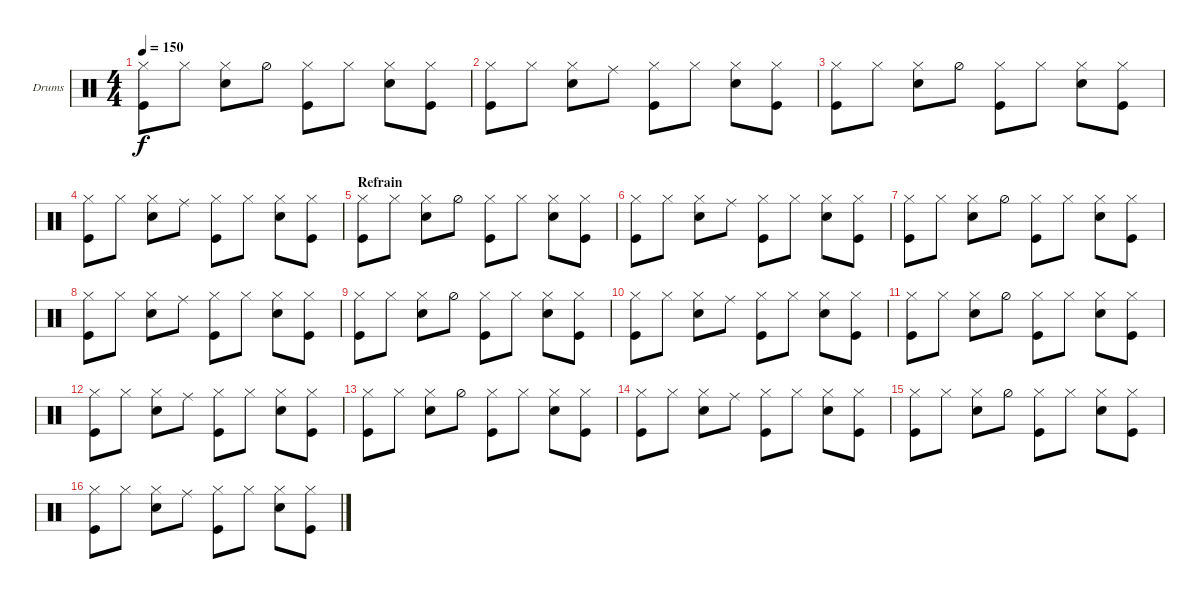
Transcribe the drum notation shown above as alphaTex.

\bracketExtendMode groupsimilarinstruments
\firstSystemTrackNameOrientation horizontal
\otherSystemsTrackNameOrientation horizontal
\track ("Drumkit" "Drums") {instrument percussion}
\staff {score}
\articulation defaults
\ts (4 4)
\tempo 150
\clef neutral
\ks c
("Hi-Hat (closed)" "Kick (hit)").8{dy f} "Hi-Hat (closed)".8 ("Hi-Hat (closed)" "Snare (hit) 2").8 "Hi-Hat (half)".8 ("Hi-Hat (closed)" "Kick (hit)").8 "Hi-Hat (closed)".8 ("Hi-Hat (closed)" "Snare (hit) 2").8 ("Hi-Hat (closed)" "Kick (hit)").8 |
("Hi-Hat (closed)" "Kick (hit)").8 "Hi-Hat (closed)".8 ("Hi-Hat (closed)" "Snare (hit) 2").8 "Ride (middle)".8 ("Hi-Hat (closed)" "Kick (hit)").8 "Hi-Hat (closed)".8 ("Hi-Hat (closed)" "Snare (hit) 2").8 ("Hi-Hat (closed)" "Kick (hit)").8 |
("Hi-Hat (closed)" "Kick (hit)").8 "Hi-Hat (closed)".8 ("Hi-Hat (closed)" "Snare (hit) 2").8 "Hi-Hat (half)".8 ("Hi-Hat (closed)" "Kick (hit)").8 "Hi-Hat (closed)".8 ("Hi-Hat (closed)" "Snare (hit) 2").8 ("Hi-Hat (closed)" "Kick (hit)").8 |
("Hi-Hat (closed)" "Kick (hit)").8 "Hi-Hat (closed)".8 ("Hi-Hat (closed)" "Snare (hit) 2").8 "Ride (middle)".8 ("Hi-Hat (closed)" "Kick (hit)").8 "Hi-Hat (closed)".8 ("Hi-Hat (closed)" "Snare (hit) 2").8 ("Hi-Hat (closed)" "Kick (hit)").8 |
\section ("" "Refrain")
("Hi-Hat (closed)" "Kick (hit)").8 "Hi-Hat (closed)".8 ("Hi-Hat (closed)" "Snare (hit) 2").8 "Hi-Hat (half)".8 ("Hi-Hat (closed)" "Kick (hit)").8 "Hi-Hat (closed)".8 ("Hi-Hat (closed)" "Snare (hit) 2").8 ("Hi-Hat (closed)" "Kick (hit)").8 |
("Hi-Hat (closed)" "Kick (hit)").8 "Hi-Hat (closed)".8 ("Hi-Hat (closed)" "Snare (hit) 2").8 "Ride (middle)".8 ("Hi-Hat (closed)" "Kick (hit)").8 "Hi-Hat (closed)".8 ("Hi-Hat (closed)" "Snare (hit) 2").8 ("Hi-Hat (closed)" "Kick (hit)").8 |
("Hi-Hat (closed)" "Kick (hit)").8 "Hi-Hat (closed)".8 ("Hi-Hat (closed)" "Snare (hit) 2").8 "Hi-Hat (half)".8 ("Hi-Hat (closed)" "Kick (hit)").8 "Hi-Hat (closed)".8 ("Hi-Hat (closed)" "Snare (hit) 2").8 ("Hi-Hat (closed)" "Kick (hit)").8 |
("Hi-Hat (closed)" "Kick (hit)").8 "Hi-Hat (closed)".8 ("Hi-Hat (closed)" "Snare (hit) 2").8 "Ride (middle)".8 ("Hi-Hat (closed)" "Kick (hit)").8 "Hi-Hat (closed)".8 ("Hi-Hat (closed)" "Snare (hit) 2").8 ("Hi-Hat (closed)" "Kick (hit)").8 |
("Hi-Hat (closed)" "Kick (hit)").8 "Hi-Hat (closed)".8 ("Hi-Hat (closed)" "Snare (hit) 2").8 "Hi-Hat (half)".8 ("Hi-Hat (closed)" "Kick (hit)").8 "Hi-Hat (closed)".8 ("Hi-Hat (closed)" "Snare (hit) 2").8 ("Hi-Hat (closed)" "Kick (hit)").8 |
("Hi-Hat (closed)" "Kick (hit)").8 "Hi-Hat (closed)".8 ("Hi-Hat (closed)" "Snare (hit) 2").8 "Ride (middle)".8 ("Hi-Hat (closed)" "Kick (hit)").8 "Hi-Hat (closed)".8 ("Hi-Hat (closed)" "Snare (hit) 2").8 ("Hi-Hat (closed)" "Kick (hit)").8 |
("Hi-Hat (closed)" "Kick (hit)").8 "Hi-Hat (closed)".8 ("Hi-Hat (closed)" "Snare (hit) 2").8 "Hi-Hat (half)".8 ("Hi-Hat (closed)" "Kick (hit)").8 "Hi-Hat (closed)".8 ("Hi-Hat (closed)" "Snare (hit) 2").8 ("Hi-Hat (closed)" "Kick (hit)").8 |
("Hi-Hat (closed)" "Kick (hit)").8 "Hi-Hat (closed)".8 ("Hi-Hat (closed)" "Snare (hit) 2").8 "Ride (middle)".8 ("Hi-Hat (closed)" "Kick (hit)").8 "Hi-Hat (closed)".8 ("Hi-Hat (closed)" "Snare (hit) 2").8 ("Hi-Hat (closed)" "Kick (hit)").8 |
("Hi-Hat (closed)" "Kick (hit)").8 "Hi-Hat (closed)".8 ("Hi-Hat (closed)" "Snare (hit) 2").8 "Hi-Hat (half)".8 ("Hi-Hat (closed)" "Kick (hit)").8 "Hi-Hat (closed)".8 ("Hi-Hat (closed)" "Snare (hit) 2").8 ("Hi-Hat (closed)" "Kick (hit)").8 |
("Hi-Hat (closed)" "Kick (hit)").8 "Hi-Hat (closed)".8 ("Hi-Hat (closed)" "Snare (hit) 2").8 "Ride (middle)".8 ("Hi-Hat (closed)" "Kick (hit)").8 "Hi-Hat (closed)".8 ("Hi-Hat (closed)" "Snare (hit) 2").8 ("Hi-Hat (closed)" "Kick (hit)").8 |
("Hi-Hat (closed)" "Kick (hit)").8 "Hi-Hat (closed)".8 ("Hi-Hat (closed)" "Snare (hit) 2").8 "Hi-Hat (half)".8 ("Hi-Hat (closed)" "Kick (hit)").8 "Hi-Hat (closed)".8 ("Hi-Hat (closed)" "Snare (hit) 2").8 ("Hi-Hat (closed)" "Kick (hit)").8 |
("Hi-Hat (closed)" "Kick (hit)").8 "Hi-Hat (closed)".8 ("Hi-Hat (closed)" "Snare (hit) 2").8 "Ride (middle)".8 ("Hi-Hat (closed)" "Kick (hit)").8 "Hi-Hat (closed)".8 ("Hi-Hat (closed)" "Snare (hit) 2").8 ("Hi-Hat (closed)" "Kick (hit)").8
